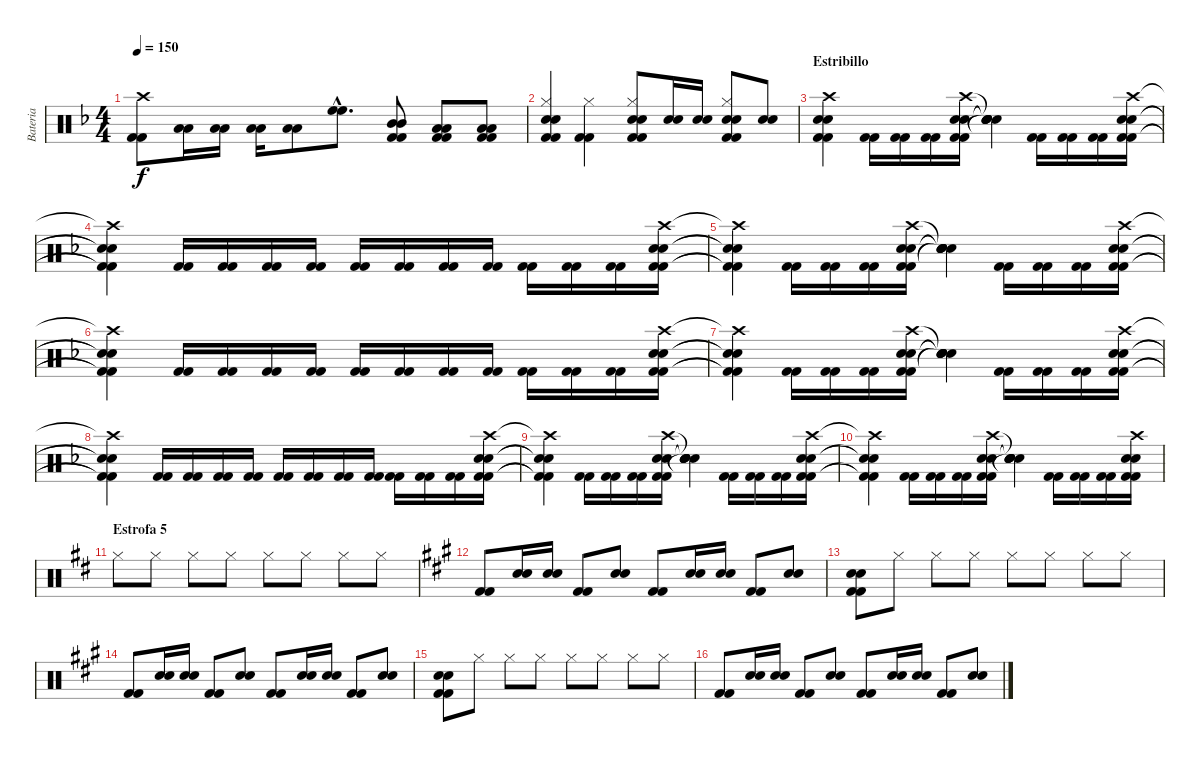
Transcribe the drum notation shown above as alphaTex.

\track ("Bateria" "Bateria") {instrument percussion}
\staff {score}
\articulation defaults
\ts (4 4)
\tempo 150
\clef neutral
\ks dminor
("Crash high (hit)" "Kick (hit) 2" "Kick (hit) 2").8{dy f} ("Low Tom (hit)" "Low Tom (hit)").16 ("Low Tom (hit)" "Low Tom (hit)").16 ("Low Tom (hit)" "Low Tom (hit)").16 ("Low Tom (hit)" "Low Tom (hit)").8 ("High Floor Tom (hit)"{hac} "High Floor Tom (hit)"{hac}).8{d} ("Mid Tom (hit)" "Mid Tom (hit)" "Kick (hit) 2" "Kick (hit) 2").8 ("Low Tom (hit)" "Low Tom (hit)" "Kick (hit) 2" "Kick (hit) 2").8 ("Low Floor Tom (hit)" "Low Floor Tom (hit)" "Kick (hit) 2" "Kick (hit) 2").8 |
("Hi-Hat (closed)" "Electric Snare (hit)" "Snare (hit) 2" "Kick (hit) 2" "Kick (hit) 2").4 ("Hi-Hat (closed)" "Kick (hit) 2" "Kick (hit) 2").4 ("Hi-Hat (closed)" "Electric Snare (hit)" "Snare (hit) 2" "Kick (hit) 2" "Kick (hit) 2").8 ("Electric Snare (hit)" "Snare (hit) 2").16 ("Electric Snare (hit)" "Snare (hit) 2").16 ("Hi-Hat (closed)" "Electric Snare (hit)" "Snare (hit) 2" "Kick (hit) 2" "Kick (hit) 2").8 ("Electric Snare (hit)" "Snare (hit) 2").8 |
\section ("" "Estribillo")
("Crash high (hit)" "Electric Snare (hit)" "Snare (hit) 2" "Kick (hit) 2" "Kick (hit) 2").4 ("Kick (hit) 2" "Kick (hit) 2").16 ("Kick (hit) 2" "Kick (hit) 2").16 ("Kick (hit) 2" "Kick (hit) 2").16 ("Crash high (hit)" "Electric Snare (hit)" "Snare (hit) 2" "Kick (hit) 2" "Kick (hit) 2").16 ("Snare (hit)"{t} "Snare (hit)"{t} "Snare (hit)"{t} "Snare (hit)"{t} "Snare (hit)"{t}).4 ("Kick (hit) 2" "Kick (hit) 2").16 ("Kick (hit) 2" "Kick (hit) 2").16 ("Kick (hit) 2" "Kick (hit) 2").16 ("Crash high (hit)" "Electric Snare (hit)" "Snare (hit) 2" "Kick (hit) 2" "Kick (hit) 2").16 |
("Crash high (hit)"{t} "Electric Snare (hit)"{t} "Snare (hit) 2"{t} "Kick (hit) 2"{t} "Kick (hit) 2"{t}).4 ("Kick (hit) 2" "Kick (hit) 2").16 ("Kick (hit) 2" "Kick (hit) 2").16 ("Kick (hit) 2" "Kick (hit) 2").16 ("Kick (hit) 2" "Kick (hit) 2").16 ("Kick (hit) 2" "Kick (hit) 2").16 ("Kick (hit) 2" "Kick (hit) 2").16 ("Kick (hit) 2" "Kick (hit) 2").16 ("Kick (hit) 2" "Kick (hit) 2").16 ("Kick (hit) 2" "Kick (hit) 2").16 ("Kick (hit) 2" "Kick (hit) 2").16 ("Kick (hit) 2" "Kick (hit) 2").16 ("Crash high (hit)" "Electric Snare (hit)" "Snare (hit) 2" "Kick (hit) 2" "Kick (hit) 2").16 |
("Crash high (hit)"{t} "Electric Snare (hit)"{t} "Snare (hit) 2"{t} "Kick (hit) 2"{t} "Kick (hit) 2"{t}).4 ("Kick (hit) 2" "Kick (hit) 2").16 ("Kick (hit) 2" "Kick (hit) 2").16 ("Kick (hit) 2" "Kick (hit) 2").16 ("Crash high (hit)" "Electric Snare (hit)" "Snare (hit) 2" "Kick (hit) 2" "Kick (hit) 2").16 ("Snare (hit)"{t} "Snare (hit)"{t} "Snare (hit)"{t} "Snare (hit)"{t} "Snare (hit)"{t}).4 ("Kick (hit) 2" "Kick (hit) 2").16 ("Kick (hit) 2" "Kick (hit) 2").16 ("Kick (hit) 2" "Kick (hit) 2").16 ("Crash high (hit)" "Electric Snare (hit)" "Snare (hit) 2" "Kick (hit) 2" "Kick (hit) 2").16 |
("Crash high (hit)"{t} "Electric Snare (hit)"{t} "Snare (hit) 2"{t} "Kick (hit) 2"{t} "Kick (hit) 2"{t}).4 ("Kick (hit) 2" "Kick (hit) 2").16 ("Kick (hit) 2" "Kick (hit) 2").16 ("Kick (hit) 2" "Kick (hit) 2").16 ("Kick (hit) 2" "Kick (hit) 2").16 ("Kick (hit) 2" "Kick (hit) 2").16 ("Kick (hit) 2" "Kick (hit) 2").16 ("Kick (hit) 2" "Kick (hit) 2").16 ("Kick (hit) 2" "Kick (hit) 2").16 ("Kick (hit) 2" "Kick (hit) 2").16 ("Kick (hit) 2" "Kick (hit) 2").16 ("Kick (hit) 2" "Kick (hit) 2").16 ("Crash high (hit)" "Electric Snare (hit)" "Snare (hit) 2" "Kick (hit) 2" "Kick (hit) 2").16 |
("Crash high (hit)"{t} "Electric Snare (hit)"{t} "Snare (hit) 2"{t} "Kick (hit) 2"{t} "Kick (hit) 2"{t}).4 ("Kick (hit) 2" "Kick (hit) 2").16 ("Kick (hit) 2" "Kick (hit) 2").16 ("Kick (hit) 2" "Kick (hit) 2").16 ("Crash high (hit)" "Electric Snare (hit)" "Snare (hit) 2" "Kick (hit) 2" "Kick (hit) 2").16 ("Snare (hit)"{t} "Snare (hit)"{t} "Snare (hit)"{t} "Snare (hit)"{t} "Snare (hit)"{t}).4 ("Kick (hit) 2" "Kick (hit) 2").16 ("Kick (hit) 2" "Kick (hit) 2").16 ("Kick (hit) 2" "Kick (hit) 2").16 ("Crash high (hit)" "Electric Snare (hit)" "Snare (hit) 2" "Kick (hit) 2" "Kick (hit) 2").16 |
("Crash high (hit)"{t} "Electric Snare (hit)"{t} "Snare (hit) 2"{t} "Kick (hit) 2"{t} "Kick (hit) 2"{t}).4 ("Kick (hit) 2" "Kick (hit) 2").16 ("Kick (hit) 2" "Kick (hit) 2").16 ("Kick (hit) 2" "Kick (hit) 2").16 ("Kick (hit) 2" "Kick (hit) 2").16 ("Kick (hit) 2" "Kick (hit) 2").16 ("Kick (hit) 2" "Kick (hit) 2").16 ("Kick (hit) 2" "Kick (hit) 2").16 ("Kick (hit) 2" "Kick (hit) 2").16 ("Kick (hit) 2" "Kick (hit) 2").16 ("Kick (hit) 2" "Kick (hit) 2").16 ("Kick (hit) 2" "Kick (hit) 2").16 ("Crash high (hit)" "Electric Snare (hit)" "Snare (hit) 2" "Kick (hit) 2" "Kick (hit) 2").16 |
("Crash high (hit)"{t} "Electric Snare (hit)"{t} "Snare (hit) 2"{t} "Kick (hit) 2"{t} "Kick (hit) 2"{t}).4 ("Kick (hit) 2" "Kick (hit) 2").16 ("Kick (hit) 2" "Kick (hit) 2").16 ("Kick (hit) 2" "Kick (hit) 2").16 ("Crash high (hit)" "Electric Snare (hit)" "Snare (hit) 2" "Kick (hit) 2" "Kick (hit) 2").16 ("Snare (hit)"{t} "Snare (hit)"{t} "Snare (hit)"{t} "Snare (hit)"{t} "Snare (hit)"{t}).4 ("Kick (hit) 2" "Kick (hit) 2").16 ("Kick (hit) 2" "Kick (hit) 2").16 ("Kick (hit) 2" "Kick (hit) 2").16 ("Crash high (hit)" "Electric Snare (hit)" "Snare (hit) 2" "Kick (hit) 2" "Kick (hit) 2").16 |
("Crash high (hit)"{t} "Electric Snare (hit)"{t} "Snare (hit) 2"{t} "Kick (hit) 2"{t} "Kick (hit) 2"{t}).4 ("Kick (hit) 2" "Kick (hit) 2").16 ("Kick (hit) 2" "Kick (hit) 2").16 ("Kick (hit) 2" "Kick (hit) 2").16 ("Crash high (hit)" "Electric Snare (hit)" "Snare (hit) 2" "Kick (hit) 2" "Kick (hit) 2").16 ("Snare (hit)"{t} "Snare (hit)"{t} "Snare (hit)"{t} "Snare (hit)"{t} "Snare (hit)"{t}).4 ("Kick (hit) 2" "Kick (hit) 2").16 ("Kick (hit) 2" "Kick (hit) 2").16 ("Kick (hit) 2" "Kick (hit) 2").16 ("Crash high (hit)" "Electric Snare (hit)" "Snare (hit) 2" "Kick (hit) 2" "Kick (hit) 2").16 |
\section ("" "Estrofa 5")
\ks d "Hi-Hat (closed)".8 "Hi-Hat (closed)".8 "Hi-Hat (closed)".8 "Hi-Hat (closed)".8 "Hi-Hat (closed)".8 "Hi-Hat (closed)".8 "Hi-Hat (closed)".8 "Hi-Hat (closed)".8
|
\ks a
("Kick (hit) 2" "Kick (hit) 2").8 ("Electric Snare (hit)" "Snare (hit) 2").16 ("Electric Snare (hit)" "Snare (hit) 2").16 ("Kick (hit) 2" "Kick (hit) 2").8 ("Electric Snare (hit)" "Snare (hit) 2").8 ("Kick (hit) 2" "Kick (hit) 2").8 ("Electric Snare (hit)" "Snare (hit) 2").16 ("Electric Snare (hit)" "Snare (hit) 2").16 ("Kick (hit) 2" "Kick (hit) 2").8 ("Electric Snare (hit)" "Snare (hit) 2").8 |
("Electric Snare (hit)" "Snare (hit) 2" "Kick (hit) 2" "Kick (hit) 2").8 "Hi-Hat (closed)".8 "Hi-Hat (closed)".8 "Hi-Hat (closed)".8 "Hi-Hat (closed)".8 "Hi-Hat (closed)".8 "Hi-Hat (closed)".8 "Hi-Hat (closed)".8 |
("Kick (hit) 2" "Kick (hit) 2").8 ("Electric Snare (hit)" "Snare (hit) 2").16 ("Electric Snare (hit)" "Snare (hit) 2").16 ("Kick (hit) 2" "Kick (hit) 2").8 ("Electric Snare (hit)" "Snare (hit) 2").8 ("Kick (hit) 2" "Kick (hit) 2").8 ("Electric Snare (hit)" "Snare (hit) 2").16 ("Electric Snare (hit)" "Snare (hit) 2").16 ("Kick (hit) 2" "Kick (hit) 2").8 ("Electric Snare (hit)" "Snare (hit) 2").8 |
("Electric Snare (hit)" "Snare (hit) 2" "Kick (hit) 2" "Kick (hit) 2").8 "Hi-Hat (closed)".8 "Hi-Hat (closed)".8 "Hi-Hat (closed)".8 "Hi-Hat (closed)".8 "Hi-Hat (closed)".8 "Hi-Hat (closed)".8 "Hi-Hat (closed)".8 |
("Kick (hit) 2" "Kick (hit) 2").8 ("Electric Snare (hit)" "Snare (hit) 2").16 ("Electric Snare (hit)" "Snare (hit) 2").16 ("Kick (hit) 2" "Kick (hit) 2").8 ("Electric Snare (hit)" "Snare (hit) 2").8 ("Kick (hit) 2" "Kick (hit) 2").8 ("Electric Snare (hit)" "Snare (hit) 2").16 ("Electric Snare (hit)" "Snare (hit) 2").16 ("Kick (hit) 2" "Kick (hit) 2").8 ("Electric Snare (hit)" "Snare (hit) 2").8
